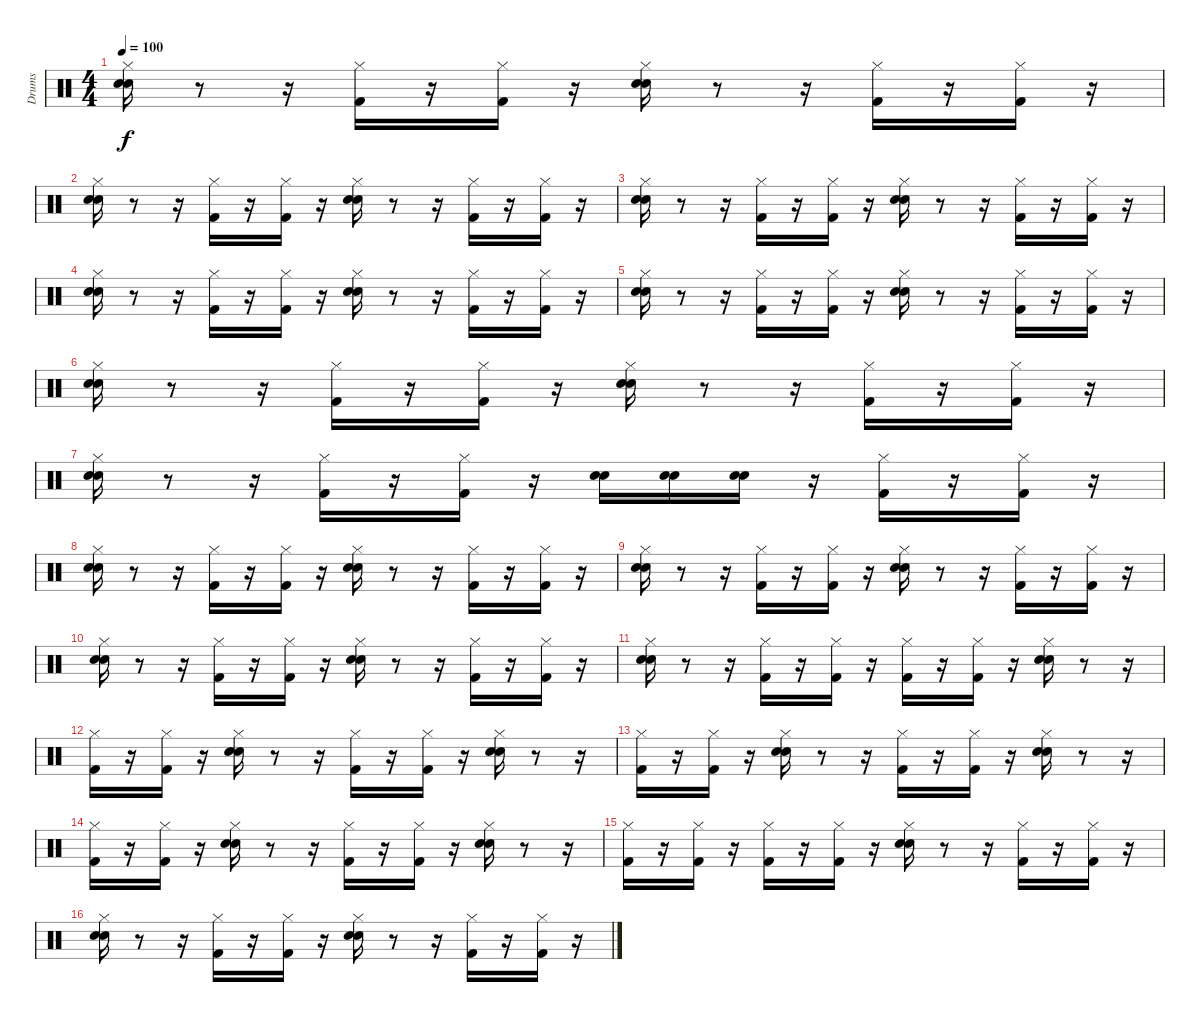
\track ("Drums" "Drums") {instrument percussion}
\staff {score}
\articulation defaults
\ts (4 4)
\tempo 100
\clef neutral
\ks c
("Hi-Hat (closed)" "Snare (hit) 2" "Hand Clap (hit)").16{dy f} r.8 r.16 ("Kick (hit) 2" "Hi-Hat (closed)").16 r.16 ("Hi-Hat (closed)" "Kick (hit) 2").16 r.16 ("Hand Clap (hit)" "Hi-Hat (closed)" "Snare (hit) 2").16 r.8 r.16 ("Kick (hit) 2" "Hi-Hat (closed)").16 r.16 ("Hi-Hat (closed)" "Kick (hit) 2").16 r.16 |
("Hi-Hat (closed)" "Snare (hit) 2" "Hand Clap (hit)").16 r.8 r.16 ("Hi-Hat (closed)" "Kick (hit) 2").16 r.16 ("Kick (hit) 2" "Hi-Hat (closed)").16 r.16 ("Hand Clap (hit)" "Hi-Hat (closed)" "Snare (hit) 2").16 r.8 r.16 ("Hi-Hat (closed)" "Kick (hit) 2").16 r.16 ("Kick (hit) 2" "Hi-Hat (closed)").16 r.16 |
("Snare (hit) 2" "Hand Clap (hit)" "Hi-Hat (closed)").16 r.8 r.16 ("Hi-Hat (closed)" "Kick (hit) 2").16 r.16 ("Kick (hit) 2" "Hi-Hat (closed)").16 r.16 ("Hand Clap (hit)" "Hi-Hat (closed)" "Snare (hit) 2").16 r.8 r.16 ("Hi-Hat (closed)" "Kick (hit) 2").16 r.16 ("Kick (hit) 2" "Hi-Hat (closed)").16 r.16 |
("Snare (hit) 2" "Hand Clap (hit)" "Hi-Hat (closed)").16 r.8 r.16 ("Kick (hit) 2" "Hi-Hat (closed)").16 r.16 ("Hi-Hat (closed)" "Kick (hit) 2").16 r.16 ("Hand Clap (hit)" "Snare (hit) 2" "Hi-Hat (closed)").16 r.8 r.16 ("Hi-Hat (closed)" "Kick (hit) 2").16 r.16 ("Hi-Hat (closed)" "Kick (hit) 2").16 r.16 |
("Hi-Hat (closed)" "Snare (hit) 2" "Hand Clap (hit)").16 r.8 r.16 ("Hi-Hat (closed)" "Kick (hit) 2").16 r.16 ("Kick (hit) 2" "Hi-Hat (closed)").16 r.16 ("Hi-Hat (closed)" "Snare (hit) 2" "Hand Clap (hit)").16 r.8 r.16 ("Hi-Hat (closed)" "Kick (hit) 2").16 r.16 ("Hi-Hat (closed)" "Kick (hit) 2").16 r.16 |
("Hand Clap (hit)" "Snare (hit) 2" "Hi-Hat (closed)").16 r.8 r.16 ("Hi-Hat (closed)" "Kick (hit) 2").16 r.16 ("Kick (hit) 2" "Hi-Hat (closed)").16 r.16 ("Snare (hit) 2" "Hand Clap (hit)" "Hi-Hat (closed)").16 r.8 r.16 ("Hi-Hat (closed)" "Kick (hit) 2").16 r.16 ("Kick (hit) 2" "Hi-Hat (closed)").16 r.16 |
("Hand Clap (hit)" "Hi-Hat (closed)" "Snare (hit) 2").16 r.8 r.16 ("Hi-Hat (closed)" "Kick (hit) 2").16 r.16 ("Kick (hit) 2" "Hi-Hat (closed)").16 r.16 ("Snare (hit) 2" "Hand Clap (hit)").16 ("Snare (hit)" "Snare (hit) 2").16 ("Snare (hit)" "Snare (hit) 2").16 r.16 ("Kick (hit) 2" "Hi-Hat (closed)").16 r.16 ("Hi-Hat (closed)" "Kick (hit) 2").16 r.16 |
("Snare (hit) 2" "Hand Clap (hit)" "Hi-Hat (closed)").16 r.8 r.16 ("Hi-Hat (closed)" "Kick (hit) 2").16 r.16 ("Hi-Hat (closed)" "Kick (hit) 2").16 r.16 ("Hi-Hat (closed)" "Snare (hit) 2" "Hand Clap (hit)").16 r.8 r.16 ("Kick (hit) 2" "Hi-Hat (closed)").16 r.16 ("Hi-Hat (closed)" "Kick (hit) 2").16 r.16 |
("Snare (hit) 2" "Hand Clap (hit)" "Hi-Hat (closed)").16 r.8 r.16 ("Hi-Hat (closed)" "Kick (hit) 2").16 r.16 ("Hi-Hat (closed)" "Kick (hit) 2").16 r.16 ("Hi-Hat (closed)" "Hand Clap (hit)" "Snare (hit) 2").16 r.8 r.16 ("Kick (hit) 2" "Hi-Hat (closed)").16 r.16 ("Hi-Hat (closed)" "Kick (hit) 2").16 r.16 |
("Snare (hit) 2" "Hi-Hat (closed)" "Hand Clap (hit)").16 r.8 r.16 ("Hi-Hat (closed)" "Kick (hit) 2").16 r.16 ("Hi-Hat (closed)" "Kick (hit) 2").16 r.16 ("Hand Clap (hit)" "Snare (hit) 2" "Hi-Hat (closed)").16 r.8 r.16 ("Hi-Hat (closed)" "Kick (hit) 2").16 r.16 ("Kick (hit) 2" "Hi-Hat (closed)").16 r.16 |
("Hi-Hat (closed)" "Snare (hit) 2" "Hand Clap (hit)").16 r.8 r.16 ("Hi-Hat (closed)" "Kick (hit) 2").16 r.16 ("Hi-Hat (closed)" "Kick (hit) 2").16 r.16 ("Hi-Hat (closed)" "Kick (hit) 2").16 r.16 ("Kick (hit) 2" "Hi-Hat (closed)").16 r.16 ("Snare (hit) 2" "Hi-Hat (closed)" "Hand Clap (hit)").16 r.8 r.16 |
("Hi-Hat (closed)" "Kick (hit) 2").16 r.16 ("Hi-Hat (closed)" "Kick (hit) 2").16 r.16 ("Hi-Hat (closed)" "Hand Clap (hit)" "Snare (hit) 2").16 r.8 r.16 ("Kick (hit) 2" "Hi-Hat (closed)").16 r.16 ("Hi-Hat (closed)" "Kick (hit) 2").16 r.16 ("Hand Clap (hit)" "Snare (hit) 2" "Hi-Hat (closed)").16 r.8 r.16 |
("Hi-Hat (closed)" "Kick (hit) 2").16 r.16 ("Hi-Hat (closed)" "Kick (hit) 2").16 r.16 ("Hand Clap (hit)" "Snare (hit) 2" "Hi-Hat (closed)").16 r.8 r.16 ("Kick (hit) 2" "Hi-Hat (closed)").16 r.16 ("Kick (hit) 2" "Hi-Hat (closed)").16 r.16 ("Hand Clap (hit)" "Snare (hit) 2" "Hi-Hat (closed)").16 r.8 r.16 |
("Hi-Hat (closed)" "Kick (hit) 2").16 r.16 ("Hi-Hat (closed)" "Kick (hit) 2").16 r.16 ("Hi-Hat (closed)" "Hand Clap (hit)" "Snare (hit) 2").16 r.8 r.16 ("Hi-Hat (closed)" "Kick (hit) 2").16 r.16 ("Hi-Hat (closed)" "Kick (hit) 2").16 r.16 ("Hi-Hat (closed)" "Snare (hit) 2" "Hand Clap (hit)").16 r.8 r.16 |
("Kick (hit) 2" "Hi-Hat (closed)").16 r.16 ("Hi-Hat (closed)" "Kick (hit) 2").16 r.16 ("Hi-Hat (closed)" "Kick (hit) 2").16 r.16 ("Hi-Hat (closed)" "Kick (hit) 2").16 r.16 ("Hi-Hat (closed)" "Hand Clap (hit)" "Snare (hit) 2").16 r.8 r.16 ("Kick (hit) 2" "Hi-Hat (closed)").16 r.16 ("Kick (hit) 2" "Hi-Hat (closed)").16 r.16 |
("Hand Clap (hit)" "Hi-Hat (closed)" "Snare (hit) 2").16 r.8 r.16 ("Kick (hit) 2" "Hi-Hat (closed)").16 r.16 ("Kick (hit) 2" "Hi-Hat (closed)").16 r.16 ("Hand Clap (hit)" "Hi-Hat (closed)" "Snare (hit) 2").16 r.8 r.16 ("Kick (hit) 2" "Hi-Hat (closed)").16 r.16 ("Hi-Hat (closed)" "Kick (hit) 2").16 r.16
